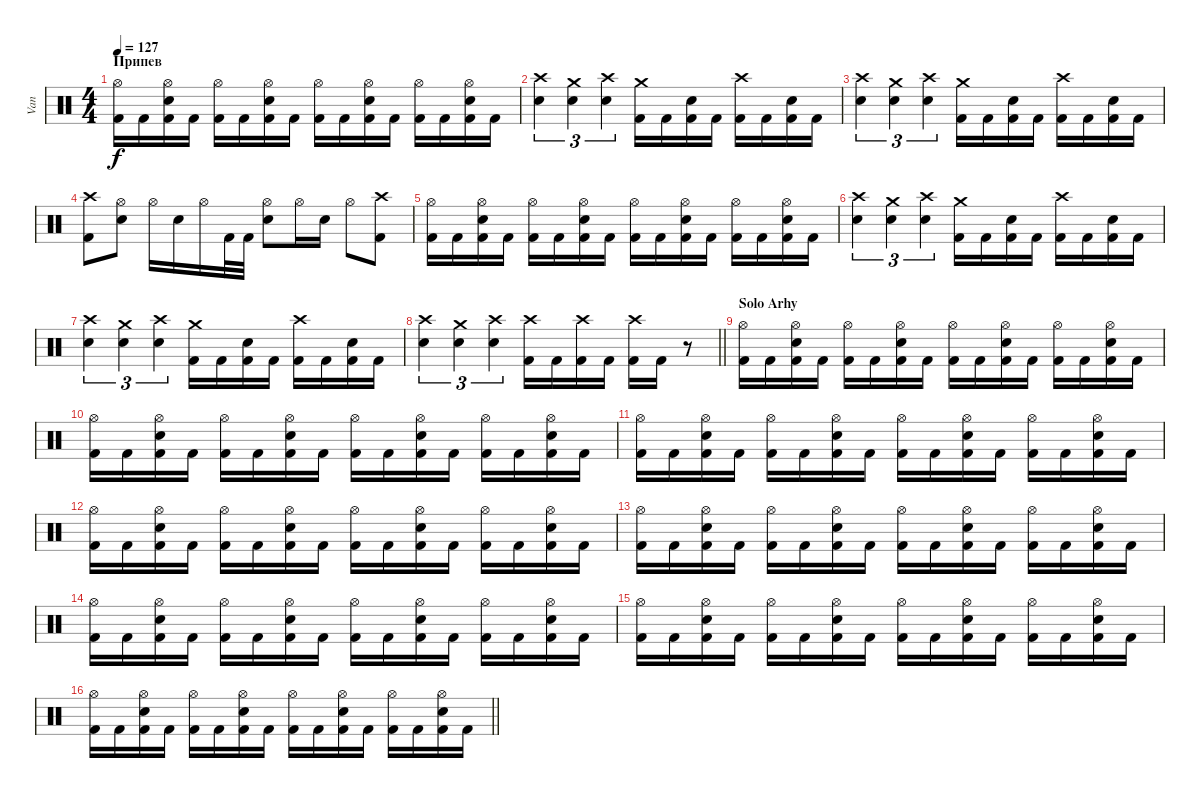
\track ("Van" "Van") {instrument percussion}
\staff {score}
\articulation defaults
\ts (4 4)
\section ("" "Припев")
\tempo 127
\clef neutral
\ks c
("Kick (hit) 2" "Hi-Hat (open)").16{dy f} "Kick (hit) 2".16 ("Kick (hit) 2" "Hi-Hat (open)" "Electric Snare (hit)").16 "Kick (hit) 2".16 ("Kick (hit) 2" "Hi-Hat (open)").16 "Kick (hit) 2".16 ("Kick (hit) 2" "Hi-Hat (open)" "Electric Snare (hit)").16 "Kick (hit) 2".16 ("Kick (hit) 2" "Hi-Hat (open)").16 "Kick (hit) 2".16 ("Kick (hit) 2" "Hi-Hat (open)" "Electric Snare (hit)").16 "Kick (hit) 2".16 ("Kick (hit) 2" "Hi-Hat (open)").16 "Kick (hit) 2".16 ("Kick (hit) 2" "Hi-Hat (open)" "Electric Snare (hit)").16 "Kick (hit) 2".16 |
("Crash high (hit)" "Electric Snare (hit)").4{tu (3 2)} ("Crash medium (hit)" "Electric Snare (hit)").4{tu (3 2)} ("Crash high (hit)" "Electric Snare (hit)").4{tu (3 2)} ("Kick (hit) 2" "Crash medium (hit)").16 "Kick (hit) 2".16 ("Kick (hit) 2" "Electric Snare (hit)").16 "Kick (hit) 2".16 ("Kick (hit) 2" "Crash high (hit)").16 "Kick (hit) 2".16 ("Kick (hit) 2" "Electric Snare (hit)").16 "Kick (hit) 2".16 |
("Crash high (hit)" "Electric Snare (hit)").4{tu (3 2)} ("Crash medium (hit)" "Electric Snare (hit)").4{tu (3 2)} ("Crash high (hit)" "Electric Snare (hit)").4{tu (3 2)} ("Kick (hit) 2" "Crash medium (hit)").16 "Kick (hit) 2".16 ("Kick (hit) 2" "Electric Snare (hit)").16 "Kick (hit) 2".16 ("Kick (hit) 2" "Crash high (hit)").16 "Kick (hit) 2".16 ("Kick (hit) 2" "Electric Snare (hit)").16 "Kick (hit) 2".16 |
("Kick (hit) 2" "Crash high (hit)").8 ("Snare (hit) 2" "Hi-Hat (open)").8 "Hi-Hat (open)".16 "Snare (hit) 2".16 "Hi-Hat (open)".16 "Kick (hit) 2".32 "Kick (hit) 2".32 ("Snare (hit) 2" "Hi-Hat (open)").8 "Hi-Hat (open)".16 "Snare (hit) 2".16 "Hi-Hat (open)".8 ("Kick (hit) 2" "Crash high (hit)").8 |
("Kick (hit) 2" "Hi-Hat (open)").16 "Kick (hit) 2".16 ("Kick (hit) 2" "Hi-Hat (open)" "Electric Snare (hit)").16 "Kick (hit) 2".16 ("Kick (hit) 2" "Hi-Hat (open)").16 "Kick (hit) 2".16 ("Kick (hit) 2" "Hi-Hat (open)" "Electric Snare (hit)").16 "Kick (hit) 2".16 ("Kick (hit) 2" "Hi-Hat (open)").16 "Kick (hit) 2".16 ("Kick (hit) 2" "Hi-Hat (open)" "Electric Snare (hit)").16 "Kick (hit) 2".16 ("Kick (hit) 2" "Hi-Hat (open)").16 "Kick (hit) 2".16 ("Kick (hit) 2" "Hi-Hat (open)" "Electric Snare (hit)").16 "Kick (hit) 2".16 |
("Crash high (hit)" "Electric Snare (hit)").4{tu (3 2)} ("Crash medium (hit)" "Electric Snare (hit)").4{tu (3 2)} ("Crash high (hit)" "Electric Snare (hit)").4{tu (3 2)} ("Kick (hit) 2" "Crash medium (hit)").16 "Kick (hit) 2".16 ("Kick (hit) 2" "Electric Snare (hit)").16 "Kick (hit) 2".16 ("Kick (hit) 2" "Crash high (hit)").16 "Kick (hit) 2".16 ("Kick (hit) 2" "Electric Snare (hit)").16 "Kick (hit) 2".16 |
("Crash high (hit)" "Electric Snare (hit)").4{tu (3 2)} ("Crash medium (hit)" "Electric Snare (hit)").4{tu (3 2)} ("Crash high (hit)" "Electric Snare (hit)").4{tu (3 2)} ("Kick (hit) 2" "Crash medium (hit)").16 "Kick (hit) 2".16 ("Kick (hit) 2" "Electric Snare (hit)").16 "Kick (hit) 2".16 ("Kick (hit) 2" "Crash high (hit)").16 "Kick (hit) 2".16 ("Kick (hit) 2" "Electric Snare (hit)").16 "Kick (hit) 2".16 |
\barLineRight lightlight
("Crash high (hit)" "Electric Snare (hit)").4{tu (3 2)} ("Crash medium (hit)" "Electric Snare (hit)").4{tu (3 2)} ("Crash high (hit)" "Electric Snare (hit)").4{tu (3 2)} ("Kick (hit) 2" "Crash high (hit)").16 "Kick (hit) 2".16 ("Kick (hit) 2" "Crash high (hit)").16 "Kick (hit) 2".16 ("Kick (hit) 2" "Crash high (hit)").16 "Kick (hit) 2".16 r.8 |
\section ("" "Solo Arhy")
("Kick (hit) 2" "Hi-Hat (open)").16 "Kick (hit) 2".16 ("Kick (hit) 2" "Hi-Hat (open)" "Electric Snare (hit)").16 "Kick (hit) 2".16 ("Kick (hit) 2" "Hi-Hat (open)").16 "Kick (hit) 2".16 ("Kick (hit) 2" "Hi-Hat (open)" "Electric Snare (hit)").16 "Kick (hit) 2".16 ("Kick (hit) 2" "Hi-Hat (open)").16 "Kick (hit) 2".16 ("Kick (hit) 2" "Hi-Hat (open)" "Electric Snare (hit)").16 "Kick (hit) 2".16 ("Kick (hit) 2" "Hi-Hat (open)").16 "Kick (hit) 2".16 ("Kick (hit) 2" "Hi-Hat (open)" "Electric Snare (hit)").16 "Kick (hit) 2".16 |
("Kick (hit) 2" "Hi-Hat (open)").16 "Kick (hit) 2".16 ("Kick (hit) 2" "Hi-Hat (open)" "Electric Snare (hit)").16 "Kick (hit) 2".16 ("Kick (hit) 2" "Hi-Hat (open)").16 "Kick (hit) 2".16 ("Kick (hit) 2" "Hi-Hat (open)" "Electric Snare (hit)").16 "Kick (hit) 2".16 ("Kick (hit) 2" "Hi-Hat (open)").16 "Kick (hit) 2".16 ("Kick (hit) 2" "Hi-Hat (open)" "Electric Snare (hit)").16 "Kick (hit) 2".16 ("Kick (hit) 2" "Hi-Hat (open)").16 "Kick (hit) 2".16 ("Kick (hit) 2" "Hi-Hat (open)" "Electric Snare (hit)").16 "Kick (hit) 2".16 |
("Kick (hit) 2" "Hi-Hat (open)").16 "Kick (hit) 2".16 ("Kick (hit) 2" "Hi-Hat (open)" "Electric Snare (hit)").16 "Kick (hit) 2".16 ("Kick (hit) 2" "Hi-Hat (open)").16 "Kick (hit) 2".16 ("Kick (hit) 2" "Hi-Hat (open)" "Electric Snare (hit)").16 "Kick (hit) 2".16 ("Kick (hit) 2" "Hi-Hat (open)").16 "Kick (hit) 2".16 ("Kick (hit) 2" "Hi-Hat (open)" "Electric Snare (hit)").16 "Kick (hit) 2".16 ("Kick (hit) 2" "Hi-Hat (open)").16 "Kick (hit) 2".16 ("Kick (hit) 2" "Hi-Hat (open)" "Electric Snare (hit)").16 "Kick (hit) 2".16 |
("Kick (hit) 2" "Hi-Hat (open)").16 "Kick (hit) 2".16 ("Kick (hit) 2" "Hi-Hat (open)" "Electric Snare (hit)").16 "Kick (hit) 2".16 ("Kick (hit) 2" "Hi-Hat (open)").16 "Kick (hit) 2".16 ("Kick (hit) 2" "Hi-Hat (open)" "Electric Snare (hit)").16 "Kick (hit) 2".16 ("Kick (hit) 2" "Hi-Hat (open)").16 "Kick (hit) 2".16 ("Kick (hit) 2" "Hi-Hat (open)" "Electric Snare (hit)").16 "Kick (hit) 2".16 ("Kick (hit) 2" "Hi-Hat (open)").16 "Kick (hit) 2".16 ("Kick (hit) 2" "Hi-Hat (open)" "Electric Snare (hit)").16 "Kick (hit) 2".16 |
("Kick (hit) 2" "Hi-Hat (open)").16 "Kick (hit) 2".16 ("Kick (hit) 2" "Hi-Hat (open)" "Electric Snare (hit)").16 "Kick (hit) 2".16 ("Kick (hit) 2" "Hi-Hat (open)").16 "Kick (hit) 2".16 ("Kick (hit) 2" "Hi-Hat (open)" "Electric Snare (hit)").16 "Kick (hit) 2".16 ("Kick (hit) 2" "Hi-Hat (open)").16 "Kick (hit) 2".16 ("Kick (hit) 2" "Hi-Hat (open)" "Electric Snare (hit)").16 "Kick (hit) 2".16 ("Kick (hit) 2" "Hi-Hat (open)").16 "Kick (hit) 2".16 ("Kick (hit) 2" "Hi-Hat (open)" "Electric Snare (hit)").16 "Kick (hit) 2".16 |
("Kick (hit) 2" "Hi-Hat (open)").16 "Kick (hit) 2".16 ("Kick (hit) 2" "Hi-Hat (open)" "Electric Snare (hit)").16 "Kick (hit) 2".16 ("Kick (hit) 2" "Hi-Hat (open)").16 "Kick (hit) 2".16 ("Kick (hit) 2" "Hi-Hat (open)" "Electric Snare (hit)").16 "Kick (hit) 2".16 ("Kick (hit) 2" "Hi-Hat (open)").16 "Kick (hit) 2".16 ("Kick (hit) 2" "Hi-Hat (open)" "Electric Snare (hit)").16 "Kick (hit) 2".16 ("Kick (hit) 2" "Hi-Hat (open)").16 "Kick (hit) 2".16 ("Kick (hit) 2" "Hi-Hat (open)" "Electric Snare (hit)").16 "Kick (hit) 2".16 |
("Kick (hit) 2" "Hi-Hat (open)").16 "Kick (hit) 2".16 ("Kick (hit) 2" "Hi-Hat (open)" "Electric Snare (hit)").16 "Kick (hit) 2".16 ("Kick (hit) 2" "Hi-Hat (open)").16 "Kick (hit) 2".16 ("Kick (hit) 2" "Hi-Hat (open)" "Electric Snare (hit)").16 "Kick (hit) 2".16 ("Kick (hit) 2" "Hi-Hat (open)").16 "Kick (hit) 2".16 ("Kick (hit) 2" "Hi-Hat (open)" "Electric Snare (hit)").16 "Kick (hit) 2".16 ("Kick (hit) 2" "Hi-Hat (open)").16 "Kick (hit) 2".16 ("Kick (hit) 2" "Hi-Hat (open)" "Electric Snare (hit)").16 "Kick (hit) 2".16 |
\barLineRight lightlight
("Kick (hit) 2" "Hi-Hat (open)").16 "Kick (hit) 2".16 ("Kick (hit) 2" "Hi-Hat (open)" "Electric Snare (hit)").16 "Kick (hit) 2".16 ("Kick (hit) 2" "Hi-Hat (open)").16 "Kick (hit) 2".16 ("Kick (hit) 2" "Hi-Hat (open)" "Electric Snare (hit)").16 "Kick (hit) 2".16 ("Kick (hit) 2" "Hi-Hat (open)").16 "Kick (hit) 2".16 ("Kick (hit) 2" "Hi-Hat (open)" "Electric Snare (hit)").16 "Kick (hit) 2".16 ("Kick (hit) 2" "Hi-Hat (open)").16 "Kick (hit) 2".16 ("Kick (hit) 2" "Hi-Hat (open)" "Electric Snare (hit)").16 "Kick (hit) 2".16
